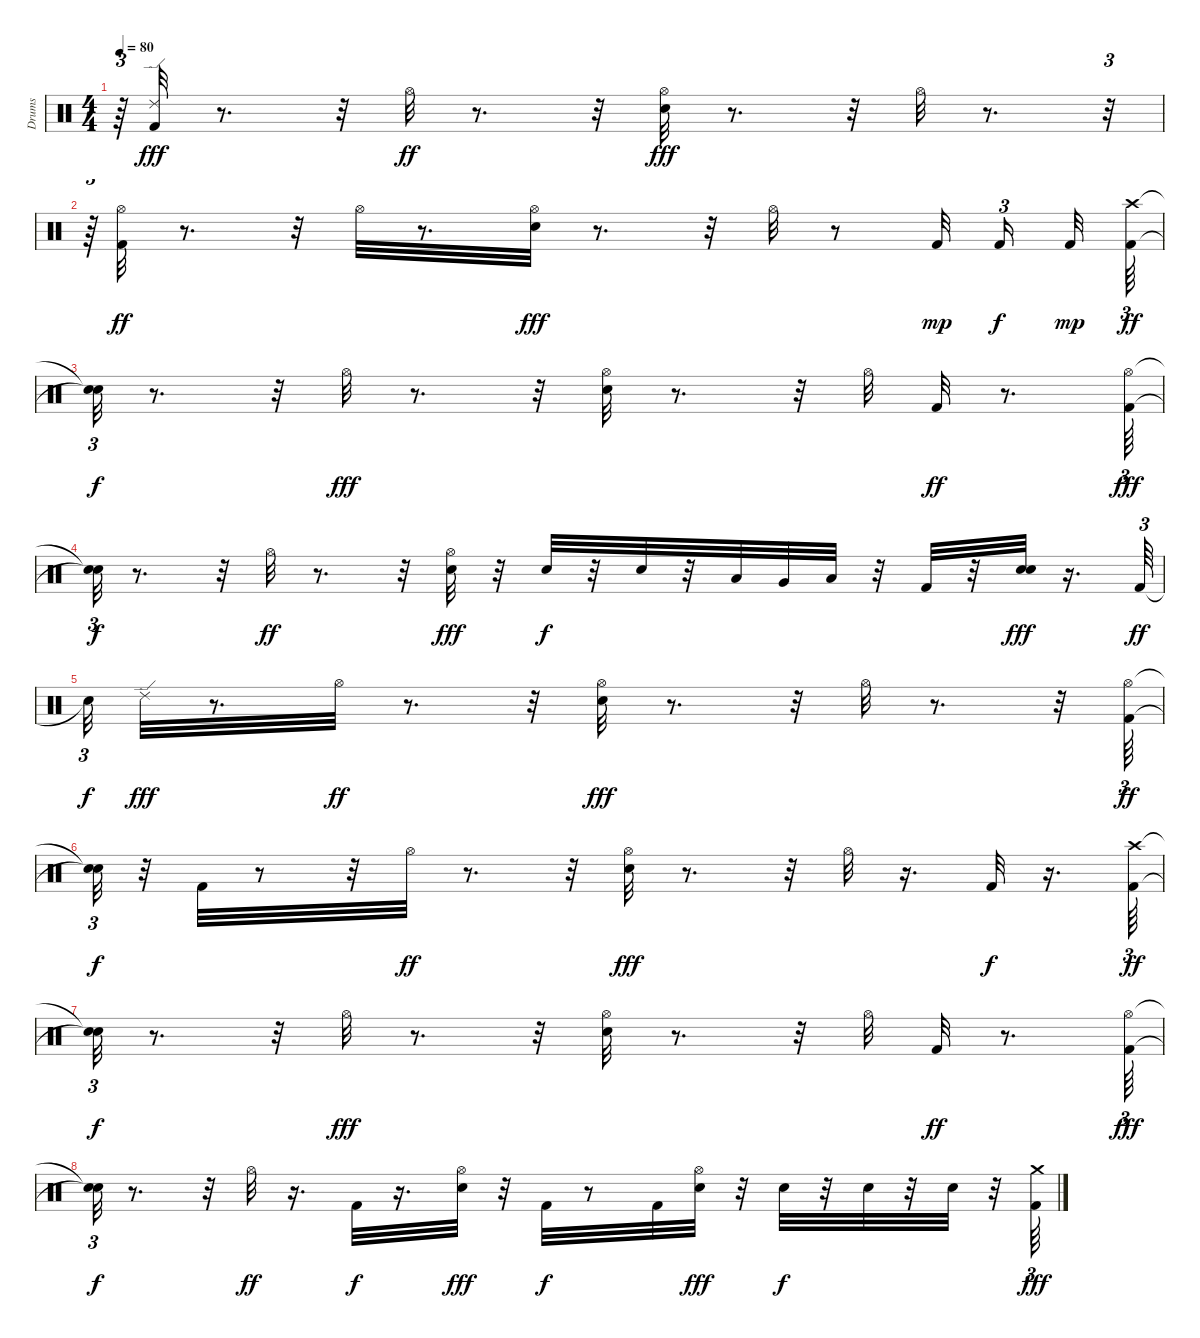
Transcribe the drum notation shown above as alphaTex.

\track ("Drums" "Drums") {instrument percussion}
\staff {score}
\articulation defaults
\ts (4 4)
\tempo 80
\clef neutral
\ks c
r.64{tu (3 2) dy f} ("Kick (hit) 2" "Ride (edge) 2").32{dy fff} r.8{d} r.32 "Hi-Hat (open)".32{dy ff} r.8{d} r.32 ("Electric Snare (hit)" "Hi-Hat (open)").32{dy fff} r.8{d} r.32 "Hi-Hat (open)".32 r.8{d} r.32{tu (3 2)} |
r.64{tu (3 2)} ("Hi-Hat (open)" "Kick (hit) 2").32{dy ff} r.8{d} r.32 "Hi-Hat (open)".32 r.8{d} ("Electric Snare (hit)" "Hi-Hat (open)").32{dy fff} r.8{d} r.32 "Hi-Hat (open)".32 r.8 "Kick (hit) 2".32{dy mp beam splitsecondary} "Kick (hit) 2".16{tu (3 2) dy f beam splitsecondary} "Kick (hit) 2".32{dy mp} ("Crash high (hit)" "Kick (hit) 2").64{tu (3 2) dy ff} |
("Snare (hit)"{t} "Snare (hit)"{t}).32{tu (3 2) dy f} r.8{d} r.32 "Hi-Hat (open)".32{dy fff} r.8{d} r.32 ("Hi-Hat (open)" "Electric Snare (hit)").32 r.8{d} r.32 "Hi-Hat (open)".32 "Kick (hit) 2".32{dy ff} r.8{d} ("Kick (hit) 2" "Hi-Hat (open)").64{tu (3 2) dy fff} |
("Snare (hit)"{t} "Snare (hit)"{t}).32{tu (3 2) dy f} r.8{d} r.32 "Hi-Hat (open)".32{dy ff} r.8{d} r.32 ("Electric Snare (hit)" "Hi-Hat (open)").32{dy fff} r.32 "Electric Snare (hit)".32{dy f} r.32 "Electric Snare (hit)".32 r.32 "Low Tom (hit)".32 "Very Low Tom (hit)".32 "Low Floor Tom (hit)".32 r.32 "Kick (hit) 2".32 r.32 ("Electric Snare (hit)" "Snare (hit) 2").32{dy fff} r.16{d} "Kick (hit) 2".64{tu (3 2) dy ff} |
"Snare (hit)"{t}.32{tu (3 2) dy f} "Ride (edge) 2".32{dy fff} r.8{d} "Hi-Hat (open)".32{dy ff} r.8{d} r.32 ("Electric Snare (hit)" "Hi-Hat (open)").32{dy fff} r.8{d} r.32 "Hi-Hat (open)".32 r.8{d} r.32 ("Hi-Hat (open)" "Kick (hit) 2").64{tu (3 2) dy ff} |
("Snare (hit)"{t} "Snare (hit)"{t}).32{tu (3 2) dy f} r.32 "Kick (hit) 2".32 r.8 r.32 "Hi-Hat (open)".32{dy ff} r.8{d} r.32 ("Electric Snare (hit)" "Hi-Hat (open)").32{dy fff} r.8{d} r.32 "Hi-Hat (open)".32 r.16{d} "Kick (hit) 2".32{dy f} r.16{d} ("Crash high (hit)" "Kick (hit) 2").64{tu (3 2) dy ff} |
("Snare (hit)"{t} "Snare (hit)"{t}).32{tu (3 2) dy f} r.8{d} r.32 "Hi-Hat (open)".32{dy fff} r.8{d} r.32 ("Hi-Hat (open)" "Electric Snare (hit)").32 r.8{d} r.32 "Hi-Hat (open)".32 "Kick (hit) 2".32{dy ff} r.8{d} ("Kick (hit) 2" "Hi-Hat (open)").64{tu (3 2) dy fff} |
("Snare (hit)"{t} "Snare (hit)"{t}).32{tu (3 2) dy f} r.8{d} r.32 "Hi-Hat (open)".32{dy ff} r.16{d} "Kick (hit) 2".32{dy f} r.16{d} ("Electric Snare (hit)" "Hi-Hat (open)").32{dy fff} r.32 "Kick (hit) 2".32{dy f} r.8 "Kick (hit) 2".32 ("Hi-Hat (open)" "Electric Snare (hit)").32{dy fff} r.32 "Electric Snare (hit)".32{dy f} r.32 "Electric Snare (hit)".32 r.32 "Electric Snare (hit)".32 r.32 ("Kick (hit) 2" "Crash medium (hit)").64{tu (3 2) dy fff}
